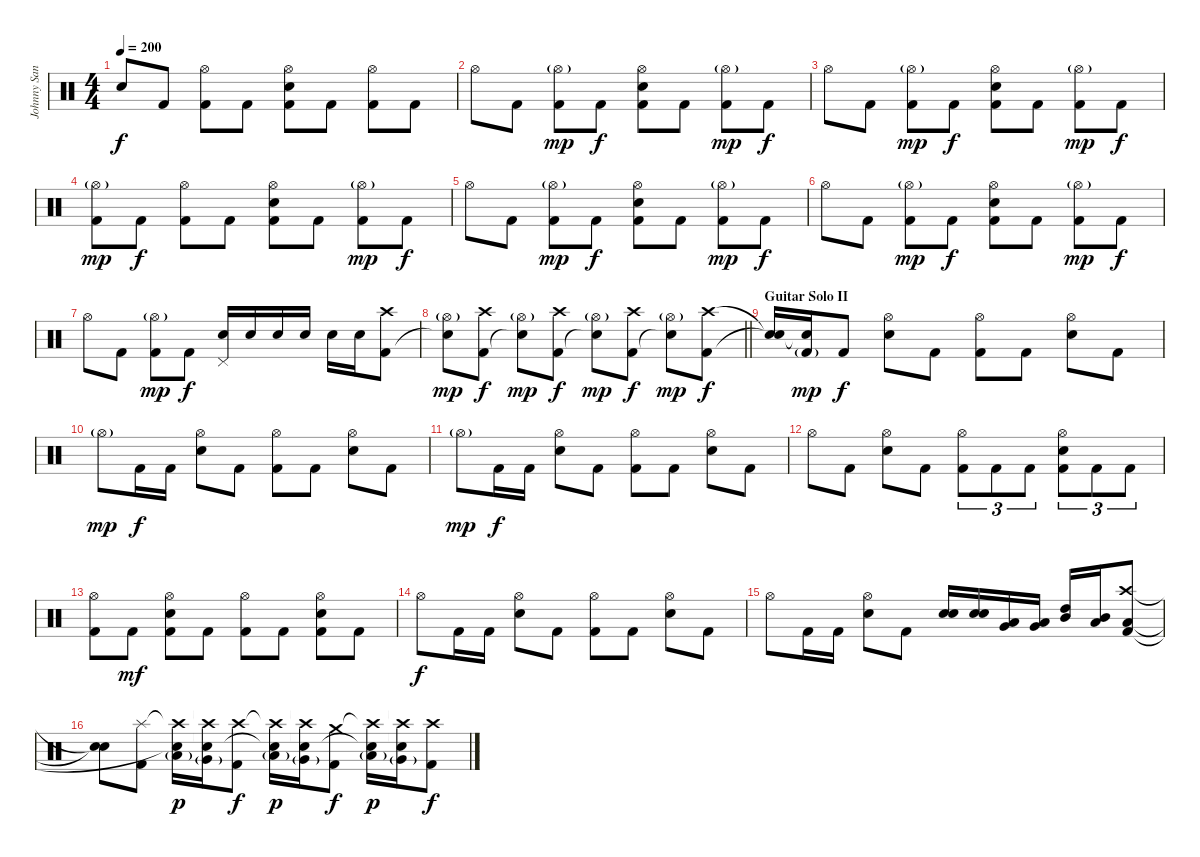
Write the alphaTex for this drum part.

\track ("Johnny Sandin" "Johnny San") {instrument percussion}
\staff {score}
\articulation defaults
\ts (4 4)
\tempo 200
\clef neutral
\ks c "Snare (hit)"{t}.8{dy f} "Kick (hit) 2".8
("Hi-Hat (open)" "Kick (hit) 2").8 "Kick (hit) 2".8 ("Hi-Hat (open)" "Snare (hit) 2" "Kick (hit) 2").8 "Kick (hit) 2".8 ("Hi-Hat (open)" "Kick (hit) 2").8 "Kick (hit) 2".8 |
"Hi-Hat (open)".8 "Kick (hit) 2".8 ("Hi-Hat (open)"{g} "Kick (hit) 2").8{dy mp} "Kick (hit) 2".8{dy f} ("Hi-Hat (open)" "Snare (hit) 2" "Kick (hit) 2").8 "Kick (hit) 2".8 ("Hi-Hat (open)"{g} "Kick (hit) 2").8{dy mp} "Kick (hit) 2".8{dy f} |
"Hi-Hat (open)".8 "Kick (hit) 2".8 ("Hi-Hat (open)"{g} "Kick (hit) 2").8{dy mp} "Kick (hit) 2".8{dy f} ("Hi-Hat (open)" "Snare (hit) 2" "Kick (hit) 2").8 "Kick (hit) 2".8 ("Hi-Hat (open)"{g} "Kick (hit) 2").8{dy mp} "Kick (hit) 2".8{dy f} |
("Hi-Hat (open)"{g} "Kick (hit) 2").8{dy mp} "Kick (hit) 2".8{dy f} ("Hi-Hat (open)" "Kick (hit) 2").8 "Kick (hit) 2".8 ("Hi-Hat (open)" "Snare (hit) 2" "Kick (hit) 2").8 "Kick (hit) 2".8 ("Hi-Hat (open)"{g} "Kick (hit) 2").8{dy mp} "Kick (hit) 2".8{dy f} |
"Hi-Hat (open)".8 "Kick (hit) 2".8 ("Hi-Hat (open)"{g} "Kick (hit) 2").8{dy mp} "Kick (hit) 2".8{dy f} ("Hi-Hat (open)" "Snare (hit) 2" "Kick (hit) 2").8 "Kick (hit) 2".8 ("Hi-Hat (open)"{g} "Kick (hit) 2").8{dy mp} "Kick (hit) 2".8{dy f} |
"Hi-Hat (open)".8 "Kick (hit) 2".8 ("Hi-Hat (open)"{g} "Kick (hit) 2").8{dy mp} "Kick (hit) 2".8{dy f} ("Hi-Hat (open)" "Snare (hit) 2" "Kick (hit) 2").8 "Kick (hit) 2".8 ("Hi-Hat (open)"{g} "Kick (hit) 2").8{dy mp} "Kick (hit) 2".8{dy f} |
"Hi-Hat (open)".8 "Kick (hit) 2".8 ("Hi-Hat (open)"{g} "Kick (hit) 2").8{dy mp} "Kick (hit) 2".8{dy f} ("Pedal Hi-Hat (hit)" "Snare (hit) 2").16 "Snare (hit) 2".16 "Snare (hit) 2".16 "Snare (hit) 2".16 "Snare (hit) 2".16 "Snare (hit) 2".16 ("Crash high (hit)" "Kick (hit) 2").8 |
\barLineRight lightlight
("Hi-Hat (open)"{g} "Snare (hit)"{t}).8{dy mp} ("Crash high (hit)" "Kick (hit) 2").8{dy f} ("Hi-Hat (open)"{g} "Snare (hit)"{t}).8{dy mp} ("Crash high (hit)" "Kick (hit) 2").8{dy f} ("Hi-Hat (open)"{g} "Snare (hit)"{t}).8{dy mp} ("Crash high (hit)" "Kick (hit) 2").8{dy f} ("Hi-Hat (open)"{g} "Snare (hit)"{t}).8{dy mp} ("Crash high (hit)" "Kick (hit) 2").8{dy f} |
\section ("" "Guitar Solo II")
("Snare (hit)"{t} "Snare (hit)"{t}).16 ("Snare (hit)"{t} "Kick (hit) 2"{g}).16{dy mp} "Kick (hit) 2".8{dy f} ("Hi-Hat (open)" "Snare (hit) 2").8 "Kick (hit) 2".8 ("Hi-Hat (open)" "Kick (hit) 2").8 "Kick (hit) 2".8 ("Hi-Hat (open)" "Snare (hit) 2").8 "Kick (hit) 2".8 |
"Hi-Hat (open)"{g}.8{dy mp} "Kick (hit) 2".16{dy f} "Kick (hit) 2".16 ("Hi-Hat (open)" "Snare (hit) 2").8 "Kick (hit) 2".8 ("Hi-Hat (open)" "Kick (hit) 2").8 "Kick (hit) 2".8 ("Hi-Hat (open)" "Snare (hit) 2").8 "Kick (hit) 2".8 |
"Hi-Hat (open)"{g}.8{dy mp} "Kick (hit) 2".16{dy f} "Kick (hit) 2".16 ("Hi-Hat (open)" "Snare (hit) 2").8 "Kick (hit) 2".8 ("Hi-Hat (open)" "Kick (hit) 2").8 "Kick (hit) 2".8 ("Hi-Hat (open)" "Snare (hit) 2").8 "Kick (hit) 2".8 |
"Hi-Hat (open)".8 "Kick (hit) 2".8 ("Hi-Hat (open)" "Snare (hit) 2").8 "Kick (hit) 2".8 ("Hi-Hat (open)" "Kick (hit) 2").8{tu (3 2)} "Kick (hit) 2".8{tu (3 2)} "Kick (hit) 2".8{tu (3 2)} ("Hi-Hat (open)" "Snare (hit) 2" "Kick (hit) 2").8{tu (3 2)} "Kick (hit) 2".8{tu (3 2)} "Kick (hit) 2".8{tu (3 2)} |
("Hi-Hat (open)" "Kick (hit) 2").8 "Kick (hit) 2".8{dy mf} ("Hi-Hat (open)" "Snare (hit) 2" "Kick (hit) 2").8 "Kick (hit) 2".8 ("Hi-Hat (open)" "Kick (hit) 2").8 "Kick (hit) 2".8 ("Hi-Hat (open)" "Snare (hit) 2" "Kick (hit) 2").8 "Kick (hit) 2".8 |
"Hi-Hat (open)".8{dy f} "Kick (hit) 2".16 "Kick (hit) 2".16 ("Hi-Hat (open)" "Snare (hit) 2").8 "Kick (hit) 2".8 ("Hi-Hat (open)" "Kick (hit) 2").8 "Kick (hit) 2".8 ("Hi-Hat (open)" "Snare (hit) 2").8 "Kick (hit) 2".8 |
"Hi-Hat (open)".8 "Kick (hit) 2".16 "Kick (hit) 2".16 ("Hi-Hat (open)" "Snare (hit) 2").8 "Kick (hit) 2".8 ("Snare (hit) 2" "Snare (hit) 2").16 ("Snare (hit) 2" "Snare (hit) 2").16 ("Low Tom (hit)" "Very Low Tom (hit)").16 ("Very Low Tom (hit)" "Low Floor Tom (hit)").16 ("High Tom (hit)" "Mid Tom (hit)").16 ("Mid Tom (hit)" "Low Tom (hit)").16 ("Crash high (hit)" "Low Tom (hit)" "Kick (hit) 2").8 |
("Snare (hit)"{t} "Snare (hit)"{t}).8 ("Splash (hit)" "Kick (hit) 2").8 ("Crash high (hit)"{t} "Low Tom (hit)"{g} "Snare (hit)"{t}).16{dy p} ("Crash high (hit)"{t} "Very Low Tom (hit)"{g} "Snare (hit)"{t}).16 ("Crash high (hit)" "Kick (hit) 2").8{dy f} ("Crash high (hit)"{t} "Low Tom (hit)"{g} "Snare (hit)"{t}).16{dy p} ("Crash high (hit)"{t} "Very Low Tom (hit)"{g} "Snare (hit)"{t}).16 ("Crash medium (hit)" "Kick (hit) 2").8{dy f} ("Crash high (hit)"{t} "Low Tom (hit)"{g} "Snare (hit)"{t}).16{dy p} ("Crash high (hit)"{t} "Very Low Tom (hit)"{g} "Snare (hit)"{t}).16 ("Crash high (hit)" "Kick (hit) 2").8{dy f}
